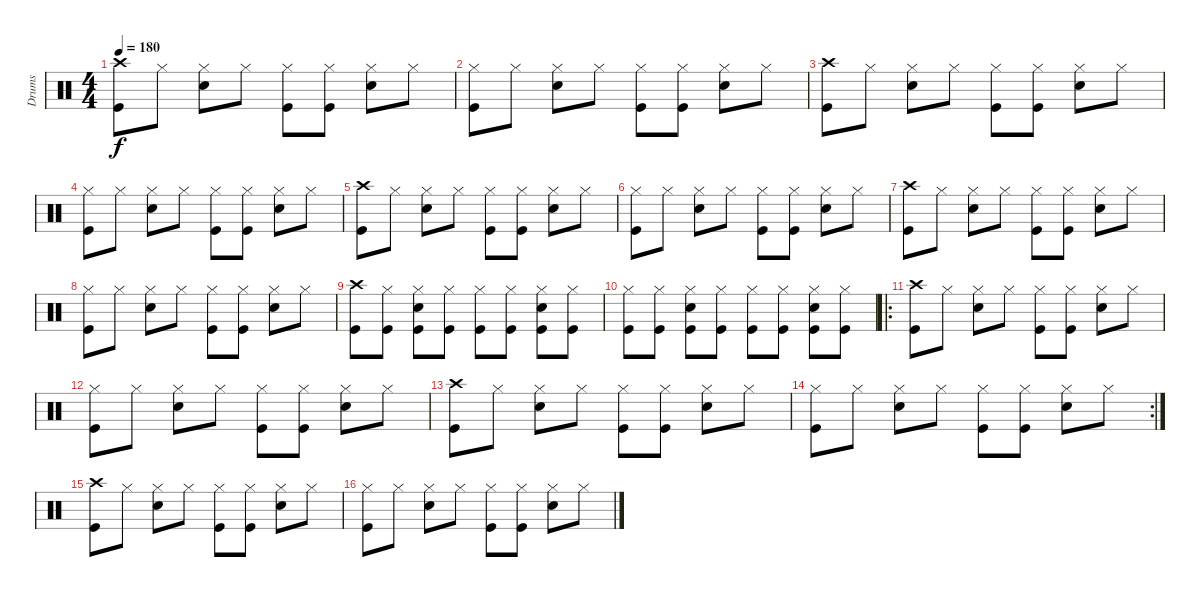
\track ("Drums" "Drums") {instrument percussion}
\staff {score}
\articulation defaults
\ts (4 4)
\tempo 180
\clef neutral
\ks c
("Crash high (hit)" "Kick (hit)").8{dy f} "Hi-Hat (closed)".8 ("Hi-Hat (closed)" "Snare (hit) 2").8 "Hi-Hat (closed)".8 ("Hi-Hat (closed)" "Kick (hit)").8 ("Hi-Hat (closed)" "Kick (hit)").8 ("Hi-Hat (closed)" "Snare (hit) 2").8 "Hi-Hat (closed)".8 |
("Hi-Hat (closed)" "Kick (hit)").8 "Hi-Hat (closed)".8 ("Hi-Hat (closed)" "Snare (hit) 2").8 "Hi-Hat (closed)".8 ("Hi-Hat (closed)" "Kick (hit)").8 ("Hi-Hat (closed)" "Kick (hit)").8 ("Hi-Hat (closed)" "Snare (hit) 2").8 "Hi-Hat (closed)".8 |
("Crash high (hit)" "Kick (hit)").8 "Hi-Hat (closed)".8 ("Hi-Hat (closed)" "Snare (hit) 2").8 "Hi-Hat (closed)".8 ("Hi-Hat (closed)" "Kick (hit)").8 ("Hi-Hat (closed)" "Kick (hit)").8 ("Hi-Hat (closed)" "Snare (hit) 2").8 "Hi-Hat (closed)".8 |
("Hi-Hat (closed)" "Kick (hit)").8 "Hi-Hat (closed)".8 ("Hi-Hat (closed)" "Snare (hit) 2").8 "Hi-Hat (closed)".8 ("Hi-Hat (closed)" "Kick (hit)").8 ("Hi-Hat (closed)" "Kick (hit)").8 ("Hi-Hat (closed)" "Snare (hit) 2").8 "Hi-Hat (closed)".8 |
("Crash high (hit)" "Kick (hit)").8 "Hi-Hat (closed)".8 ("Hi-Hat (closed)" "Snare (hit) 2").8 "Hi-Hat (closed)".8 ("Hi-Hat (closed)" "Kick (hit)").8 ("Hi-Hat (closed)" "Kick (hit)").8 ("Hi-Hat (closed)" "Snare (hit) 2").8 "Hi-Hat (closed)".8 |
("Hi-Hat (closed)" "Kick (hit)").8 "Hi-Hat (closed)".8 ("Hi-Hat (closed)" "Snare (hit) 2").8 "Hi-Hat (closed)".8 ("Hi-Hat (closed)" "Kick (hit)").8 ("Hi-Hat (closed)" "Kick (hit)").8 ("Hi-Hat (closed)" "Snare (hit) 2").8 "Hi-Hat (closed)".8 |
("Crash high (hit)" "Kick (hit)").8 "Hi-Hat (closed)".8 ("Hi-Hat (closed)" "Snare (hit) 2").8 "Hi-Hat (closed)".8 ("Hi-Hat (closed)" "Kick (hit)").8 ("Hi-Hat (closed)" "Kick (hit)").8 ("Hi-Hat (closed)" "Snare (hit) 2").8 "Hi-Hat (closed)".8 |
("Hi-Hat (closed)" "Kick (hit)").8 "Hi-Hat (closed)".8 ("Hi-Hat (closed)" "Snare (hit) 2").8 "Hi-Hat (closed)".8 ("Hi-Hat (closed)" "Kick (hit)").8 ("Hi-Hat (closed)" "Kick (hit)").8 ("Hi-Hat (closed)" "Snare (hit) 2").8 "Hi-Hat (closed)".8 |
("Crash high (hit)" "Kick (hit)").8 ("Hi-Hat (closed)" "Kick (hit)").8 ("Hi-Hat (closed)" "Snare (hit) 2" "Kick (hit)").8 ("Hi-Hat (closed)" "Kick (hit)").8 ("Hi-Hat (closed)" "Kick (hit)").8 ("Hi-Hat (closed)" "Kick (hit)").8 ("Hi-Hat (closed)" "Snare (hit) 2" "Kick (hit)").8 ("Hi-Hat (closed)" "Kick (hit)").8 |
("Hi-Hat (closed)" "Kick (hit)").8 ("Hi-Hat (closed)" "Kick (hit)").8 ("Hi-Hat (closed)" "Snare (hit) 2" "Kick (hit)").8 ("Hi-Hat (closed)" "Kick (hit)").8 ("Hi-Hat (closed)" "Kick (hit)").8 ("Hi-Hat (closed)" "Kick (hit)").8 ("Hi-Hat (closed)" "Snare (hit) 2" "Kick (hit)").8 ("Hi-Hat (closed)" "Kick (hit)").8 |
\ro
("Crash high (hit)" "Kick (hit)").8 "Hi-Hat (closed)".8 ("Hi-Hat (closed)" "Snare (hit) 2").8 "Hi-Hat (closed)".8 ("Hi-Hat (closed)" "Kick (hit)").8 ("Hi-Hat (closed)" "Kick (hit)").8 ("Hi-Hat (closed)" "Snare (hit) 2").8 "Hi-Hat (closed)".8 |
("Hi-Hat (closed)" "Kick (hit)").8 "Hi-Hat (closed)".8 ("Hi-Hat (closed)" "Snare (hit) 2").8 "Hi-Hat (closed)".8 ("Hi-Hat (closed)" "Kick (hit)").8 ("Hi-Hat (closed)" "Kick (hit)").8 ("Hi-Hat (closed)" "Snare (hit) 2").8 "Hi-Hat (closed)".8 |
("Crash high (hit)" "Kick (hit)").8 "Hi-Hat (closed)".8 ("Hi-Hat (closed)" "Snare (hit) 2").8 "Hi-Hat (closed)".8 ("Hi-Hat (closed)" "Kick (hit)").8 ("Hi-Hat (closed)" "Kick (hit)").8 ("Hi-Hat (closed)" "Snare (hit) 2").8 "Hi-Hat (closed)".8 |
\rc 2
("Hi-Hat (closed)" "Kick (hit)").8 "Hi-Hat (closed)".8 ("Hi-Hat (closed)" "Snare (hit) 2").8 "Hi-Hat (closed)".8 ("Hi-Hat (closed)" "Kick (hit)").8 ("Hi-Hat (closed)" "Kick (hit)").8 ("Hi-Hat (closed)" "Snare (hit) 2").8 "Hi-Hat (closed)".8 |
("Crash high (hit)" "Kick (hit)").8 "Hi-Hat (closed)".8 ("Hi-Hat (closed)" "Snare (hit) 2").8 "Hi-Hat (closed)".8 ("Hi-Hat (closed)" "Kick (hit)").8 ("Hi-Hat (closed)" "Kick (hit)").8 ("Hi-Hat (closed)" "Snare (hit) 2").8 "Hi-Hat (closed)".8 |
("Hi-Hat (closed)" "Kick (hit)").8 "Hi-Hat (closed)".8 ("Hi-Hat (closed)" "Snare (hit) 2").8 "Hi-Hat (closed)".8 ("Hi-Hat (closed)" "Kick (hit)").8 ("Hi-Hat (closed)" "Kick (hit)").8 ("Hi-Hat (closed)" "Snare (hit) 2").8 "Hi-Hat (closed)".8
